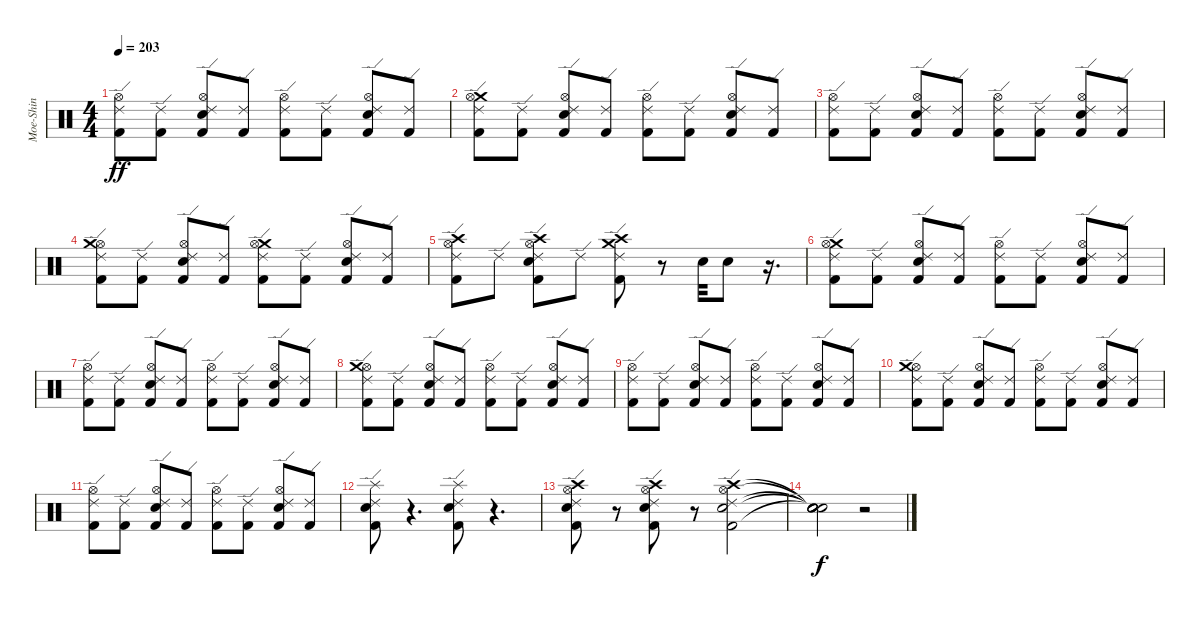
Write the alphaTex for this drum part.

\track ("Moe-Shin" "Moe-Shin") {instrument percussion}
\staff {score}
\articulation defaults
\ts (4 4)
\tempo 203
\clef neutral
\ks c
("Kick (hit) 2" "Ride (edge) 2" "Hi-Hat (open)").8{dy ff} ("Kick (hit) 2" "Ride (edge) 2").8 ("Ride (edge) 2" "Snare (hit) 2" "Hi-Hat (open)" "Kick (hit) 2").8 ("Ride (edge) 2" "Kick (hit) 2").8 ("Ride (edge) 2" "Kick (hit) 2" "Hi-Hat (open)").8 ("Ride (edge) 2" "Kick (hit) 2").8 ("Ride (edge) 2" "Kick (hit) 2" "Hi-Hat (open)" "Snare (hit) 2").8 ("Kick (hit) 2" "Ride (edge) 2").8 |
("Ride (edge) 2" "Kick (hit) 2" "Crash medium (hit)" "Hi-Hat (open)").8 ("Ride (edge) 2" "Kick (hit) 2").8 ("Snare (hit) 2" "Kick (hit) 2" "Hi-Hat (open)" "Ride (edge) 2").8 ("Ride (edge) 2" "Kick (hit) 2").8 ("Hi-Hat (open)" "Kick (hit) 2" "Ride (edge) 2").8 ("Kick (hit) 2" "Ride (edge) 2").8 ("Kick (hit) 2" "Hi-Hat (open)" "Ride (edge) 2" "Snare (hit) 2").8 ("Ride (edge) 2" "Kick (hit) 2").8 |
("Kick (hit) 2" "Ride (edge) 2" "Hi-Hat (open)").8 ("Ride (edge) 2" "Kick (hit) 2").8 ("Kick (hit) 2" "Snare (hit) 2" "Hi-Hat (open)" "Ride (edge) 2").8 ("Ride (edge) 2" "Kick (hit) 2").8 ("Ride (edge) 2" "Hi-Hat (open)" "Kick (hit) 2").8 ("Kick (hit) 2" "Ride (edge) 2").8 ("Snare (hit) 2" "Kick (hit) 2" "Hi-Hat (open)" "Ride (edge) 2").8 ("Kick (hit) 2" "Ride (edge) 2").8 |
("Kick (hit) 2" "Hi-Hat (open)" "Ride (edge) 2" "Crash medium (hit)").8 ("Kick (hit) 2" "Ride (edge) 2").8 ("Ride (edge) 2" "Hi-Hat (open)" "Kick (hit) 2" "Snare (hit) 2").8 ("Kick (hit) 2" "Ride (edge) 2").8 ("Crash medium (hit)" "Ride (edge) 2" "Kick (hit) 2" "Hi-Hat (open)").8 ("Ride (edge) 2" "Kick (hit) 2").8 ("Ride (edge) 2" "Kick (hit) 2" "Snare (hit) 2" "Hi-Hat (open)").8 ("Ride (edge) 2" "Kick (hit) 2").8 |
("Crash high (hit)" "Kick (hit) 2" "Ride (edge) 2" "Hi-Hat (open)").8 "Ride (edge) 2".8 ("Hi-Hat (open)" "Kick (hit) 2" "Ride (edge) 2" "Crash high (hit)" "Snare (hit) 2").8 "Ride (edge) 2".8 ("Crash high (hit)" "Kick (hit) 2" "Ride (edge) 2" "Crash medium (hit)").8 r.8 "Snare (hit) 2".32 "Snare (hit) 2".8 r.16{d} |
("Kick (hit) 2" "Crash medium (hit)" "Hi-Hat (open)" "Ride (edge) 2").8 ("Ride (edge) 2" "Kick (hit) 2").8 ("Ride (edge) 2" "Kick (hit) 2" "Snare (hit) 2" "Hi-Hat (open)").8 ("Kick (hit) 2" "Ride (edge) 2").8 ("Kick (hit) 2" "Hi-Hat (open)" "Ride (edge) 2").8 ("Ride (edge) 2" "Kick (hit) 2").8 ("Kick (hit) 2" "Snare (hit) 2" "Hi-Hat (open)" "Ride (edge) 2").8 ("Kick (hit) 2" "Ride (edge) 2").8 |
("Ride (edge) 2" "Hi-Hat (open)" "Kick (hit) 2").8 ("Kick (hit) 2" "Ride (edge) 2").8 ("Hi-Hat (open)" "Kick (hit) 2" "Ride (edge) 2" "Snare (hit) 2").8 ("Kick (hit) 2" "Ride (edge) 2").8 ("Ride (edge) 2" "Hi-Hat (open)" "Kick (hit) 2").8 ("Kick (hit) 2" "Ride (edge) 2").8 ("Ride (edge) 2" "Snare (hit) 2" "Kick (hit) 2" "Hi-Hat (open)").8 ("Kick (hit) 2" "Ride (edge) 2").8 |
("Hi-Hat (open)" "Kick (hit) 2" "Ride (edge) 2" "Crash medium (hit)").8 ("Kick (hit) 2" "Ride (edge) 2").8 ("Hi-Hat (open)" "Ride (edge) 2" "Snare (hit) 2" "Kick (hit) 2").8 ("Kick (hit) 2" "Ride (edge) 2").8 ("Kick (hit) 2" "Ride (edge) 2" "Hi-Hat (open)").8 ("Ride (edge) 2" "Kick (hit) 2").8 ("Kick (hit) 2" "Ride (edge) 2" "Hi-Hat (open)" "Snare (hit) 2").8 ("Kick (hit) 2" "Ride (edge) 2").8 |
("Hi-Hat (open)" "Kick (hit) 2" "Ride (edge) 2").8 ("Ride (edge) 2" "Kick (hit) 2").8 ("Kick (hit) 2" "Ride (edge) 2" "Hi-Hat (open)" "Snare (hit) 2").8 ("Kick (hit) 2" "Ride (edge) 2").8 ("Kick (hit) 2" "Ride (edge) 2" "Hi-Hat (open)").8 ("Ride (edge) 2" "Kick (hit) 2").8 ("Kick (hit) 2" "Snare (hit) 2" "Hi-Hat (open)" "Ride (edge) 2").8 ("Kick (hit) 2" "Ride (edge) 2").8 |
("Hi-Hat (open)" "Ride (edge) 2" "Kick (hit) 2" "Crash medium (hit)").8 ("Ride (edge) 2" "Kick (hit) 2").8 ("Hi-Hat (open)" "Snare (hit) 2" "Kick (hit) 2" "Ride (edge) 2").8 ("Ride (edge) 2" "Kick (hit) 2").8 ("Ride (edge) 2" "Hi-Hat (open)" "Kick (hit) 2").8 ("Kick (hit) 2" "Ride (edge) 2").8 ("Snare (hit) 2" "Ride (edge) 2" "Kick (hit) 2" "Hi-Hat (open)").8 ("Ride (edge) 2" "Kick (hit) 2").8 |
("Kick (hit) 2" "Hi-Hat (open)" "Ride (edge) 2").8 ("Ride (edge) 2" "Kick (hit) 2").8 ("Ride (edge) 2" "Kick (hit) 2" "Snare (hit) 2" "Hi-Hat (open)").8 ("Kick (hit) 2" "Ride (edge) 2").8 ("Kick (hit) 2" "Ride (edge) 2" "Hi-Hat (open)").8 ("Ride (edge) 2" "Kick (hit) 2").8 ("Snare (hit) 2" "Kick (hit) 2" "Hi-Hat (open)" "Ride (edge) 2").8 ("Ride (edge) 2" "Kick (hit) 2").8 |
("Ride (edge) 2" "Kick (hit) 2" "Snare (hit) 2" "Splash (hit)").8 r.4{d} ("Splash (hit)" "Kick (hit) 2" "Ride (edge) 2" "Snare (hit) 2").8 r.4{d} |
("Crash high (hit)" "Hi-Hat (open)" "Snare (hit) 2" "Kick (hit) 2" "Ride (edge) 2").8 r.8 ("Ride (edge) 2" "Hi-Hat (open)" "Snare (hit) 2" "Kick (hit) 2" "Crash high (hit)").8 r.8 ("Kick (hit) 2" "Snare (hit) 2" "Ride (edge) 2" "Crash high (hit)" "Hi-Hat (open)").2 |
("Snare (hit)"{t} "Snare (hit)"{t} "Snare (hit)"{t} "Snare (hit)"{t} "Snare (hit)"{t}).2{dy f} r.2
